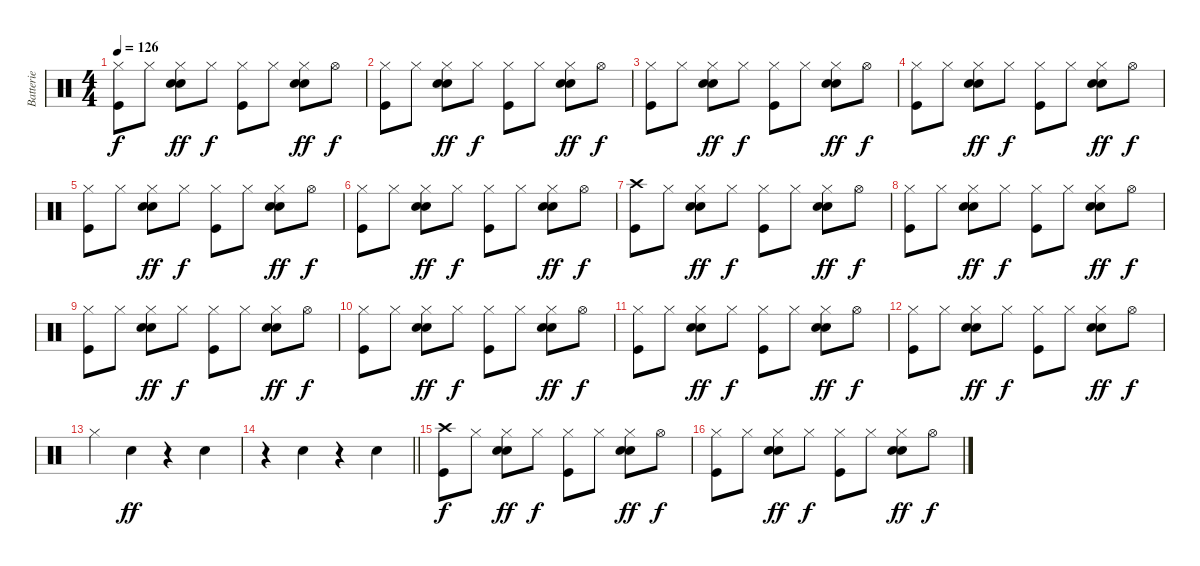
\track ("Batterie" "Batterie") {instrument percussion}
\staff {score}
\articulation defaults
\ts (4 4)
\tempo 126
\clef neutral
\ks c
("Hi-Hat (closed)" "Kick (hit)").8{dy f} "Hi-Hat (closed)".8 ("Hi-Hat (closed)" "Hand Clap (hit)" "Snare (hit) 2").8{dy ff} "Hi-Hat (closed)".8{dy f} ("Hi-Hat (closed)" "Kick (hit)").8 "Hi-Hat (closed)".8 ("Hi-Hat (closed)" "Hand Clap (hit)" "Snare (hit) 2").8{dy ff} "Hi-Hat (open)".8{dy f} |
("Hi-Hat (closed)" "Kick (hit)").8 "Hi-Hat (closed)".8 ("Hi-Hat (closed)" "Hand Clap (hit)" "Snare (hit) 2").8{dy ff} "Hi-Hat (closed)".8{dy f} ("Hi-Hat (closed)" "Kick (hit)").8 "Hi-Hat (closed)".8 ("Hi-Hat (closed)" "Hand Clap (hit)" "Snare (hit) 2").8{dy ff} "Hi-Hat (open)".8{dy f} |
("Hi-Hat (closed)" "Kick (hit)").8 "Hi-Hat (closed)".8 ("Hi-Hat (closed)" "Hand Clap (hit)" "Snare (hit) 2").8{dy ff} "Hi-Hat (closed)".8{dy f} ("Hi-Hat (closed)" "Kick (hit)").8 "Hi-Hat (closed)".8 ("Hi-Hat (closed)" "Hand Clap (hit)" "Snare (hit) 2").8{dy ff} "Hi-Hat (open)".8{dy f} |
("Hi-Hat (closed)" "Kick (hit)").8 "Hi-Hat (closed)".8 ("Hi-Hat (closed)" "Hand Clap (hit)" "Snare (hit) 2").8{dy ff} "Hi-Hat (closed)".8{dy f} ("Hi-Hat (closed)" "Kick (hit)").8 "Hi-Hat (closed)".8 ("Hi-Hat (closed)" "Hand Clap (hit)" "Snare (hit) 2").8{dy ff} "Hi-Hat (open)".8{dy f} |
("Hi-Hat (closed)" "Kick (hit)").8 "Hi-Hat (closed)".8 ("Hi-Hat (closed)" "Hand Clap (hit)" "Snare (hit) 2").8{dy ff} "Hi-Hat (closed)".8{dy f} ("Hi-Hat (closed)" "Kick (hit)").8 "Hi-Hat (closed)".8 ("Hi-Hat (closed)" "Hand Clap (hit)" "Snare (hit) 2").8{dy ff} "Hi-Hat (open)".8{dy f} |
("Hi-Hat (closed)" "Kick (hit)").8 "Hi-Hat (closed)".8 ("Hi-Hat (closed)" "Hand Clap (hit)" "Snare (hit) 2").8{dy ff} "Hi-Hat (closed)".8{dy f} ("Hi-Hat (closed)" "Kick (hit)").8 "Hi-Hat (closed)".8 ("Hi-Hat (closed)" "Hand Clap (hit)" "Snare (hit) 2").8{dy ff} "Hi-Hat (open)".8{dy f} |
("Crash high (hit)" "Kick (hit)").8 "Hi-Hat (closed)".8 ("Hi-Hat (closed)" "Hand Clap (hit)" "Snare (hit) 2").8{dy ff} "Hi-Hat (closed)".8{dy f} ("Hi-Hat (closed)" "Kick (hit)").8 "Hi-Hat (closed)".8 ("Hi-Hat (closed)" "Hand Clap (hit)" "Snare (hit) 2").8{dy ff} "Hi-Hat (open)".8{dy f} |
("Hi-Hat (closed)" "Kick (hit)").8 "Hi-Hat (closed)".8 ("Hi-Hat (closed)" "Hand Clap (hit)" "Snare (hit) 2").8{dy ff} "Hi-Hat (closed)".8{dy f} ("Hi-Hat (closed)" "Kick (hit)").8 "Hi-Hat (closed)".8 ("Hi-Hat (closed)" "Hand Clap (hit)" "Snare (hit) 2").8{dy ff} "Hi-Hat (open)".8{dy f} |
("Hi-Hat (closed)" "Kick (hit)").8 "Hi-Hat (closed)".8 ("Hi-Hat (closed)" "Hand Clap (hit)" "Snare (hit) 2").8{dy ff} "Hi-Hat (closed)".8{dy f} ("Hi-Hat (closed)" "Kick (hit)").8 "Hi-Hat (closed)".8 ("Hi-Hat (closed)" "Hand Clap (hit)" "Snare (hit) 2").8{dy ff} "Hi-Hat (open)".8{dy f} |
("Hi-Hat (closed)" "Kick (hit)").8 "Hi-Hat (closed)".8 ("Hi-Hat (closed)" "Hand Clap (hit)" "Snare (hit) 2").8{dy ff} "Hi-Hat (closed)".8{dy f} ("Hi-Hat (closed)" "Kick (hit)").8 "Hi-Hat (closed)".8 ("Hi-Hat (closed)" "Hand Clap (hit)" "Snare (hit) 2").8{dy ff} "Hi-Hat (open)".8{dy f} |
("Hi-Hat (closed)" "Kick (hit)").8 "Hi-Hat (closed)".8 ("Hi-Hat (closed)" "Hand Clap (hit)" "Snare (hit) 2").8{dy ff} "Hi-Hat (closed)".8{dy f} ("Hi-Hat (closed)" "Kick (hit)").8 "Hi-Hat (closed)".8 ("Hi-Hat (closed)" "Hand Clap (hit)" "Snare (hit) 2").8{dy ff} "Hi-Hat (open)".8{dy f} |
("Hi-Hat (closed)" "Kick (hit)").8 "Hi-Hat (closed)".8 ("Hi-Hat (closed)" "Hand Clap (hit)" "Snare (hit) 2").8{dy ff} "Hi-Hat (closed)".8{dy f} ("Hi-Hat (closed)" "Kick (hit)").8 "Hi-Hat (closed)".8 ("Hi-Hat (closed)" "Hand Clap (hit)" "Snare (hit) 2").8{dy ff} "Hi-Hat (open)".8{dy f} |
"Hi-Hat (closed)".4 "Hand Clap (hit)".4{dy ff} r.4 "Hand Clap (hit)".4 |
\barLineRight lightlight
r.4 "Hand Clap (hit)".4 r.4 "Hand Clap (hit)".4 |
("Crash high (hit)" "Kick (hit)").8{dy f} "Hi-Hat (closed)".8 ("Hi-Hat (closed)" "Hand Clap (hit)" "Snare (hit) 2").8{dy ff} "Hi-Hat (closed)".8{dy f} ("Hi-Hat (closed)" "Kick (hit)").8 "Hi-Hat (closed)".8 ("Hi-Hat (closed)" "Hand Clap (hit)" "Snare (hit) 2").8{dy ff} "Hi-Hat (open)".8{dy f} |
("Hi-Hat (closed)" "Kick (hit)").8 "Hi-Hat (closed)".8 ("Hi-Hat (closed)" "Hand Clap (hit)" "Snare (hit) 2").8{dy ff} "Hi-Hat (closed)".8{dy f} ("Hi-Hat (closed)" "Kick (hit)").8 "Hi-Hat (closed)".8 ("Hi-Hat (closed)" "Hand Clap (hit)" "Snare (hit) 2").8{dy ff} "Hi-Hat (open)".8{dy f}
